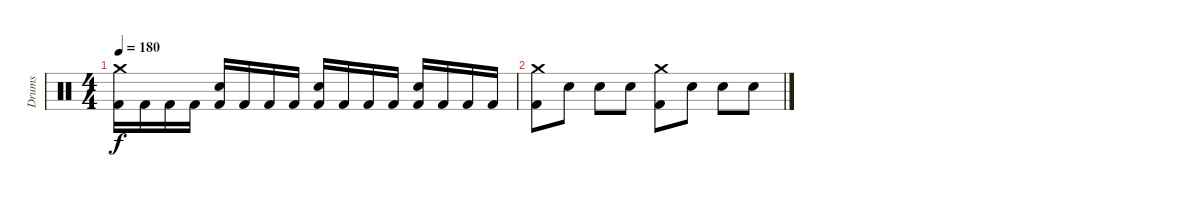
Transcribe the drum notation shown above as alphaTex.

\track ("Drums" "Drums") {instrument percussion}
\staff {score}
\articulation defaults
\ts (4 4)
\tempo 180
\clef neutral
\ks c
("Crash medium (hit)" "Kick (hit) 2").16{dy f} "Kick (hit) 2".16 "Kick (hit) 2".16 "Kick (hit) 2".16 ("Snare (hit) 2" "Kick (hit) 2").16 "Kick (hit) 2".16 "Kick (hit) 2".16 "Kick (hit) 2".16 ("Snare (hit) 2" "Kick (hit) 2").16 "Kick (hit) 2".16 "Kick (hit) 2".16 "Kick (hit) 2".16 ("Snare (hit) 2" "Kick (hit) 2").16 "Kick (hit) 2".16 "Kick (hit) 2".16 "Kick (hit) 2".16 |
("Crash medium (hit)" "Kick (hit) 2").8 "Snare (hit) 2".8 "Snare (hit) 2".8 "Snare (hit) 2".8 ("Crash medium (hit)" "Kick (hit) 2").8 "Snare (hit) 2".8 "Snare (hit) 2".8 "Snare (hit) 2".8
